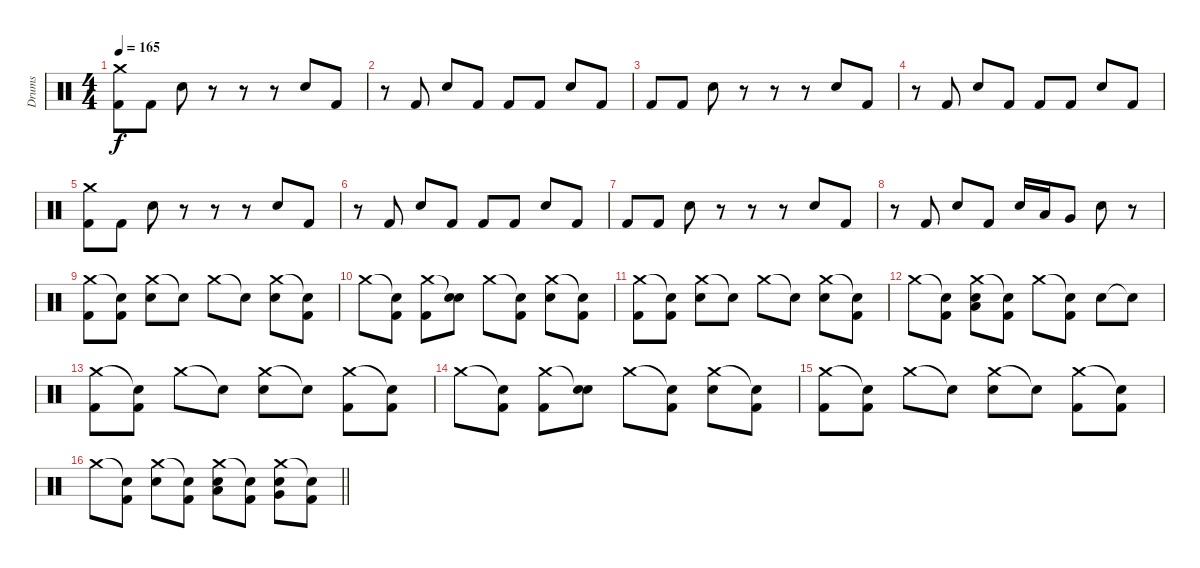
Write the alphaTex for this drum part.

\track ("Drums" "Drums") {instrument percussion}
\staff {score}
\articulation defaults
\ts (4 4)
\tempo 165
\clef neutral
\ks c
("Crash medium (hit)" "Kick (hit) 2").8{dy f} "Kick (hit) 2".8 "Electric Snare (hit)".8 r.8 r.8 r.8 "Electric Snare (hit)".8 "Kick (hit) 2".8 |
r.8 "Kick (hit) 2".8 "Electric Snare (hit)".8 "Kick (hit) 2".8 "Kick (hit) 2".8 "Kick (hit) 2".8 "Electric Snare (hit)".8 "Kick (hit) 2".8 |
"Kick (hit) 2".8 "Kick (hit) 2".8 "Electric Snare (hit)".8 r.8 r.8 r.8 "Electric Snare (hit)".8 "Kick (hit) 2".8 |
r.8 "Kick (hit) 2".8 "Electric Snare (hit)".8 "Kick (hit) 2".8 "Kick (hit) 2".8 "Kick (hit) 2".8 "Electric Snare (hit)".8 "Kick (hit) 2".8 |
("Crash medium (hit)" "Kick (hit) 2").8 "Kick (hit) 2".8 "Electric Snare (hit)".8 r.8 r.8 r.8 "Electric Snare (hit)".8 "Kick (hit) 2".8 |
r.8 "Kick (hit) 2".8 "Electric Snare (hit)".8 "Kick (hit) 2".8 "Kick (hit) 2".8 "Kick (hit) 2".8 "Electric Snare (hit)".8 "Kick (hit) 2".8 |
"Kick (hit) 2".8 "Kick (hit) 2".8 "Electric Snare (hit)".8 r.8 r.8 r.8 "Electric Snare (hit)".8 "Kick (hit) 2".8 |
r.8 "Kick (hit) 2".8 "Electric Snare (hit)".8 "Kick (hit) 2".8 "Electric Snare (hit)".16 "Low Tom (hit)".16 "Very Low Tom (hit)".8 "Electric Snare (hit)".8 r.8 |
("Crash medium (hit)" "Kick (hit) 2").8 ("Snare (hit)"{t} "Kick (hit) 2").8 ("Crash medium (hit)" "Electric Snare (hit)").8 "Snare (hit)"{t}.8 "Crash medium (hit)".8 "Snare (hit)"{t}.8 ("Crash medium (hit)" "Electric Snare (hit)").8 ("Snare (hit)"{t} "Kick (hit) 2").8 |
"Crash medium (hit)".8 ("Snare (hit)"{t} "Kick (hit) 2").8 ("Crash medium (hit)" "Kick (hit) 2").8 ("Snare (hit)"{t} "Electric Snare (hit)").8 "Crash medium (hit)".8 ("Snare (hit)"{t} "Kick (hit) 2").8 ("Crash medium (hit)" "Electric Snare (hit)").8 ("Snare (hit)"{t} "Kick (hit) 2").8 |
("Crash medium (hit)" "Kick (hit) 2").8 ("Snare (hit)"{t} "Kick (hit) 2").8 ("Crash medium (hit)" "Electric Snare (hit)").8 "Snare (hit)"{t}.8 "Crash medium (hit)".8 "Snare (hit)"{t}.8 ("Crash medium (hit)" "Electric Snare (hit)").8 ("Snare (hit)"{t} "Kick (hit) 2").8 |
"Crash medium (hit)".8 ("Snare (hit)"{t} "Kick (hit) 2").8 ("Crash medium (hit)" "Low Tom (hit)" "Electric Snare (hit)").8 ("Snare (hit)"{t} "Kick (hit) 2").8 "Crash medium (hit)".8 ("Snare (hit)"{t} "Kick (hit) 2").8 "Electric Snare (hit)".8 "Snare (hit)"{t}.8 |
("Crash medium (hit)" "Kick (hit) 2").8 ("Snare (hit)"{t} "Kick (hit) 2").8 "Crash medium (hit)".8 "Snare (hit)"{t}.8 ("Crash medium (hit)" "Electric Snare (hit)").8 "Snare (hit)"{t}.8 ("Crash medium (hit)" "Kick (hit) 2").8 ("Snare (hit)"{t} "Kick (hit) 2").8 |
"Crash medium (hit)".8 ("Snare (hit)"{t} "Kick (hit) 2").8 ("Crash medium (hit)" "Kick (hit) 2").8 ("Snare (hit)"{t} "Electric Snare (hit)").8 "Crash medium (hit)".8 ("Snare (hit)"{t} "Kick (hit) 2").8 ("Crash medium (hit)" "Electric Snare (hit)").8 ("Snare (hit)"{t} "Kick (hit) 2").8 |
("Crash medium (hit)" "Kick (hit) 2").8 ("Snare (hit)"{t} "Kick (hit) 2").8 "Crash medium (hit)".8 "Snare (hit)"{t}.8 ("Crash medium (hit)" "Electric Snare (hit)").8 "Snare (hit)"{t}.8 ("Crash medium (hit)" "Kick (hit) 2").8 ("Snare (hit)"{t} "Kick (hit) 2").8 |
\barLineRight lightlight "Crash medium (hit)".8
("Snare (hit)"{t} "Kick (hit) 2").8 ("Crash medium (hit)" "Electric Snare (hit)").8 ("Snare (hit)"{t} "Kick (hit) 2").8 ("Crash medium (hit)" "Electric Snare (hit)" "Low Tom (hit)").8 ("Snare (hit)"{t} "Kick (hit) 2").8 ("Crash medium (hit)" "Very Low Tom (hit)" "Electric Snare (hit)").8 ("Snare (hit)"{t} "Kick (hit) 2").8
